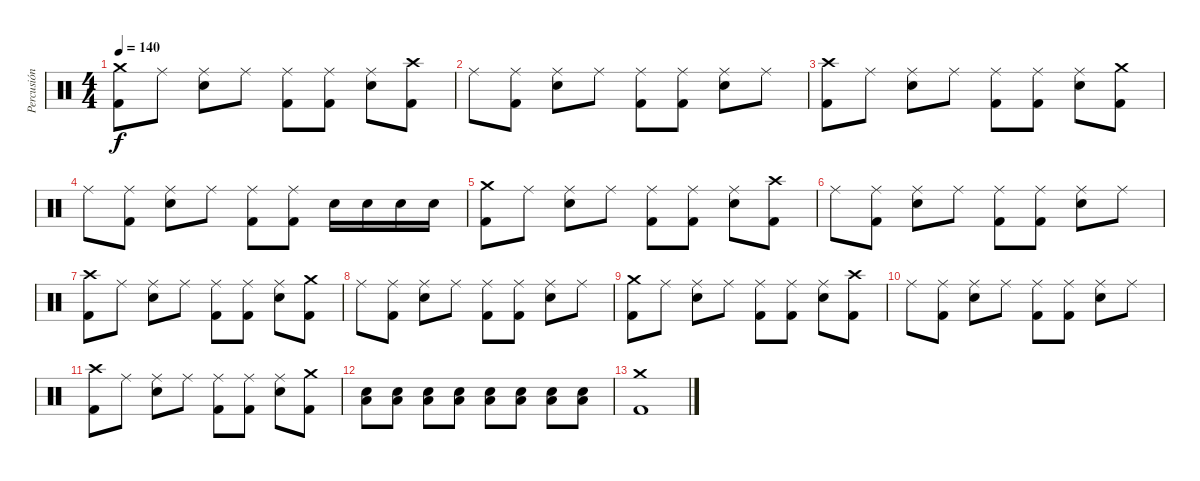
\track ("Percusión" "Percusión") {instrument percussion}
\staff {score}
\articulation defaults
\ts (4 4)
\tempo 140
\clef neutral
\ks c
("Crash medium (hit)" "Kick (hit) 2").8{dy f} "Ride (middle)".8 ("Ride (middle)" "Electric Snare (hit)").8 "Ride (middle)".8 ("Ride (middle)" "Kick (hit) 2").8 ("Ride (middle)" "Kick (hit) 2").8 ("Ride (middle)" "Electric Snare (hit)").8 ("Crash high (hit)" "Kick (hit) 2").8 |
"Ride (middle)".8 ("Ride (middle)" "Kick (hit) 2").8 ("Ride (middle)" "Electric Snare (hit)").8 "Ride (middle)".8 ("Ride (middle)" "Kick (hit) 2").8 ("Ride (middle)" "Kick (hit) 2").8 ("Ride (middle)" "Electric Snare (hit)").8 "Ride (middle)".8 |
("Crash high (hit)" "Kick (hit) 2").8 "Ride (middle)".8 ("Ride (middle)" "Electric Snare (hit)").8 "Ride (middle)".8 ("Ride (middle)" "Kick (hit) 2").8 ("Ride (middle)" "Kick (hit) 2").8 ("Ride (middle)" "Electric Snare (hit)").8 ("Crash medium (hit)" "Kick (hit) 2").8 |
"Ride (middle)".8 ("Ride (middle)" "Kick (hit) 2").8 ("Ride (middle)" "Electric Snare (hit)").8 "Ride (middle)".8 ("Ride (middle)" "Kick (hit) 2").8 ("Ride (middle)" "Kick (hit) 2").8 "Electric Snare (hit)".16 "Electric Snare (hit)".16 "Electric Snare (hit)".16 "Electric Snare (hit)".16 |
("Crash medium (hit)" "Kick (hit) 2").8 "Ride (middle)".8 ("Ride (middle)" "Electric Snare (hit)").8 "Ride (middle)".8 ("Ride (middle)" "Kick (hit) 2").8 ("Ride (middle)" "Kick (hit) 2").8 ("Ride (middle)" "Electric Snare (hit)").8 ("Crash high (hit)" "Kick (hit) 2").8 |
"Ride (middle)".8 ("Ride (middle)" "Kick (hit) 2").8 ("Ride (middle)" "Electric Snare (hit)").8 "Ride (middle)".8 ("Ride (middle)" "Kick (hit) 2").8 ("Ride (middle)" "Kick (hit) 2").8 ("Ride (middle)" "Electric Snare (hit)").8 "Ride (middle)".8 |
("Crash high (hit)" "Kick (hit) 2").8 "Ride (middle)".8 ("Ride (middle)" "Electric Snare (hit)").8 "Ride (middle)".8 ("Ride (middle)" "Kick (hit) 2").8 ("Ride (middle)" "Kick (hit) 2").8 ("Ride (middle)" "Electric Snare (hit)").8 ("Crash medium (hit)" "Kick (hit) 2").8 |
"Ride (middle)".8 ("Ride (middle)" "Kick (hit) 2").8 ("Ride (middle)" "Electric Snare (hit)").8 "Ride (middle)".8 ("Ride (middle)" "Kick (hit) 2").8 ("Ride (middle)" "Kick (hit) 2").8 ("Ride (middle)" "Electric Snare (hit)").8 "Ride (middle)".8 |
("Crash medium (hit)" "Kick (hit) 2").8 "Ride (middle)".8 ("Ride (middle)" "Electric Snare (hit)").8 "Ride (middle)".8 ("Ride (middle)" "Kick (hit) 2").8 ("Ride (middle)" "Kick (hit) 2").8 ("Ride (middle)" "Electric Snare (hit)").8 ("Crash high (hit)" "Kick (hit) 2").8 |
"Ride (middle)".8 ("Ride (middle)" "Kick (hit) 2").8 ("Ride (middle)" "Electric Snare (hit)").8 "Ride (middle)".8 ("Ride (middle)" "Kick (hit) 2").8 ("Ride (middle)" "Kick (hit) 2").8 ("Ride (middle)" "Electric Snare (hit)").8 "Ride (middle)".8 |
("Crash high (hit)" "Kick (hit) 2").8 "Ride (middle)".8 ("Ride (middle)" "Electric Snare (hit)").8 "Ride (middle)".8 ("Ride (middle)" "Kick (hit) 2").8 ("Ride (middle)" "Kick (hit) 2").8 ("Ride (middle)" "Electric Snare (hit)").8 ("Crash medium (hit)" "Kick (hit) 2").8 |
("Electric Snare (hit)" "Low Floor Tom (hit)").8 ("Electric Snare (hit)" "Low Floor Tom (hit)").8 ("Electric Snare (hit)" "Low Floor Tom (hit)").8 ("Electric Snare (hit)" "Low Floor Tom (hit)").8 ("Electric Snare (hit)" "Low Floor Tom (hit)").8 ("Electric Snare (hit)" "Low Floor Tom (hit)").8 ("Electric Snare (hit)" "Low Floor Tom (hit)").8 ("Electric Snare (hit)" "Low Floor Tom (hit)").8 |
("Crash medium (hit)" "Kick (hit) 2").1
